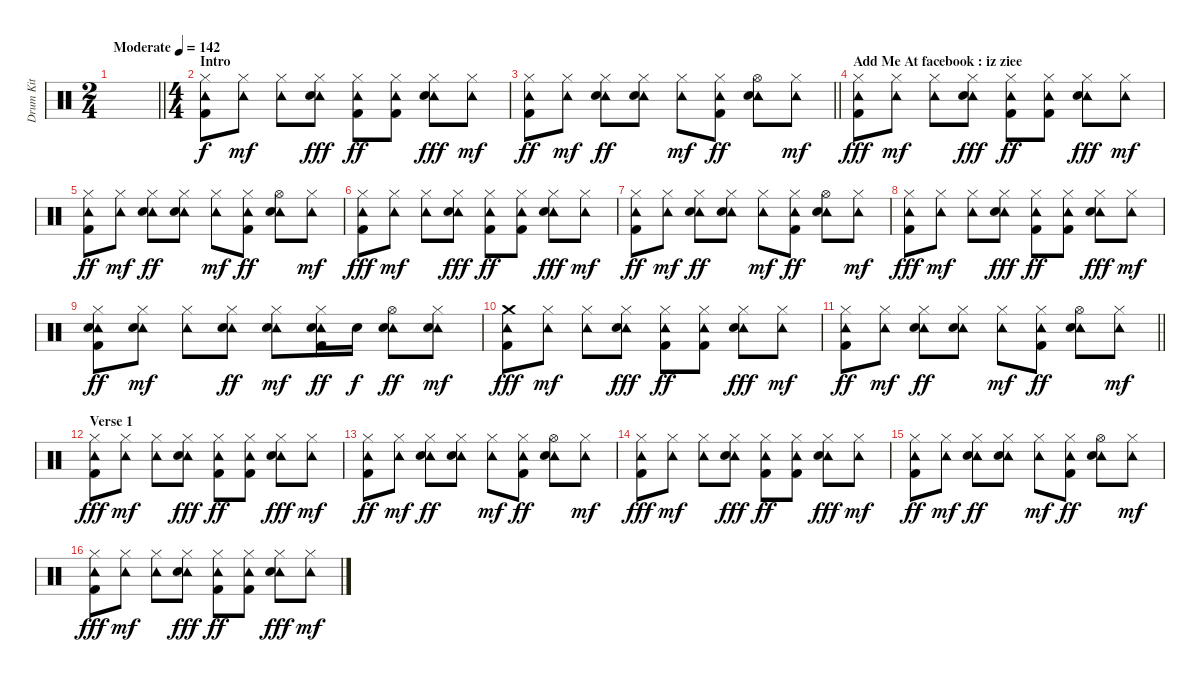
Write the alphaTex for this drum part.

\track ("Drum Kit" "Drum Kit") {instrument percussion}
\staff {score}
\articulation defaults
\ts (2 4)
\tempo (142 "Moderate")
\clef neutral
\barLineRight lightlight
\ks c
|
\ts (4 4)
\section ("" "Intro")
("Hi-Hat (closed)" "Tambourine (hit)" "Kick (hit) 2").8 ("Tambourine (hit)" "Hi-Hat (closed)").8{dy mf} ("Tambourine (hit)" "Hi-Hat (closed)").8 ("Tambourine (hit)" "Hi-Hat (closed)" "Electric Snare (hit)").8{dy fff} ("Tambourine (hit)" "Hi-Hat (closed)" "Kick (hit) 2").8{dy ff} ("Tambourine (hit)" "Hi-Hat (closed)" "Kick (hit) 2").8 ("Tambourine (hit)" "Hi-Hat (closed)" "Electric Snare (hit)").8{dy fff} ("Tambourine (hit)" "Hi-Hat (closed)").8{dy mf} |
\barLineRight lightlight
("Tambourine (hit)" "Hi-Hat (closed)" "Kick (hit) 2").8{dy ff} ("Tambourine (hit)" "Hi-Hat (closed)").8{dy mf} ("Tambourine (hit)" "Hi-Hat (closed)" "Electric Snare (hit)").8{dy ff} ("Tambourine (hit)" "Hi-Hat (closed)" "Electric Snare (hit)").8 ("Tambourine (hit)" "Hi-Hat (closed)").8{dy mf} ("Tambourine (hit)" "Hi-Hat (closed)" "Kick (hit) 2").8{dy ff} ("Tambourine (hit)" "Hi-Hat (open)" "Electric Snare (hit)").8 ("Tambourine (hit)" "Hi-Hat (closed)").8{dy mf} |
\section ("" "Add Me At facebook : iz ziee")
("Hi-Hat (closed)" "Tambourine (hit)" "Kick (hit) 2").8{dy fff} ("Tambourine (hit)" "Hi-Hat (closed)").8{dy mf} ("Tambourine (hit)" "Hi-Hat (closed)").8 ("Tambourine (hit)" "Hi-Hat (closed)" "Electric Snare (hit)").8{dy fff} ("Tambourine (hit)" "Hi-Hat (closed)" "Kick (hit) 2").8{dy ff} ("Tambourine (hit)" "Hi-Hat (closed)" "Kick (hit) 2").8 ("Tambourine (hit)" "Hi-Hat (closed)" "Electric Snare (hit)").8{dy fff} ("Tambourine (hit)" "Hi-Hat (closed)").8{dy mf} |
("Tambourine (hit)" "Hi-Hat (closed)" "Kick (hit) 2").8{dy ff} ("Tambourine (hit)" "Hi-Hat (closed)").8{dy mf} ("Tambourine (hit)" "Hi-Hat (closed)" "Electric Snare (hit)").8{dy ff} ("Tambourine (hit)" "Hi-Hat (closed)" "Electric Snare (hit)").8 ("Tambourine (hit)" "Hi-Hat (closed)").8{dy mf} ("Tambourine (hit)" "Hi-Hat (closed)" "Kick (hit) 2").8{dy ff} ("Tambourine (hit)" "Hi-Hat (open)" "Electric Snare (hit)").8 ("Tambourine (hit)" "Hi-Hat (closed)").8{dy mf} |
("Hi-Hat (closed)" "Tambourine (hit)" "Kick (hit) 2").8{dy fff} ("Tambourine (hit)" "Hi-Hat (closed)").8{dy mf} ("Tambourine (hit)" "Hi-Hat (closed)").8 ("Tambourine (hit)" "Hi-Hat (closed)" "Electric Snare (hit)").8{dy fff} ("Tambourine (hit)" "Hi-Hat (closed)" "Kick (hit) 2").8{dy ff} ("Tambourine (hit)" "Hi-Hat (closed)" "Kick (hit) 2").8 ("Tambourine (hit)" "Hi-Hat (closed)" "Electric Snare (hit)").8{dy fff} ("Tambourine (hit)" "Hi-Hat (closed)").8{dy mf} |
("Tambourine (hit)" "Hi-Hat (closed)" "Kick (hit) 2").8{dy ff} ("Tambourine (hit)" "Hi-Hat (closed)").8{dy mf} ("Tambourine (hit)" "Hi-Hat (closed)" "Electric Snare (hit)").8{dy ff} ("Tambourine (hit)" "Hi-Hat (closed)" "Electric Snare (hit)").8 ("Tambourine (hit)" "Hi-Hat (closed)").8{dy mf} ("Tambourine (hit)" "Hi-Hat (closed)" "Kick (hit) 2").8{dy ff} ("Tambourine (hit)" "Hi-Hat (open)" "Electric Snare (hit)").8 ("Tambourine (hit)" "Hi-Hat (closed)").8{dy mf} |
("Hi-Hat (closed)" "Tambourine (hit)" "Kick (hit) 2").8{dy fff} ("Tambourine (hit)" "Hi-Hat (closed)").8{dy mf} ("Tambourine (hit)" "Hi-Hat (closed)").8 ("Tambourine (hit)" "Hi-Hat (closed)" "Electric Snare (hit)").8{dy fff} ("Tambourine (hit)" "Hi-Hat (closed)" "Kick (hit) 2").8{dy ff} ("Tambourine (hit)" "Hi-Hat (closed)" "Kick (hit) 2").8 ("Tambourine (hit)" "Hi-Hat (closed)" "Electric Snare (hit)").8{dy fff} ("Tambourine (hit)" "Hi-Hat (closed)").8{dy mf} |
("Tambourine (hit)" "Hi-Hat (closed)" "Electric Snare (hit)" "Kick (hit) 2").8{dy ff} ("Tambourine (hit)" "Electric Snare (hit)" "Hi-Hat (closed)").8{dy mf} ("Tambourine (hit)" "Hi-Hat (closed)").8 ("Tambourine (hit)" "Hi-Hat (closed)" "Electric Snare (hit)").8{dy ff} ("Tambourine (hit)" "Electric Snare (hit)" "Hi-Hat (closed)").8{dy mf} ("Tambourine (hit)" "Electric Snare (hit)" "Hi-Hat (closed)" "Kick (hit) 2").16{dy ff} "Electric Snare (hit)".16{dy f} ("Tambourine (hit)" "Hi-Hat (open)" "Electric Snare (hit)").8{dy ff} ("Tambourine (hit)" "Electric Snare (hit)" "Hi-Hat (closed)").8{dy mf} |
("Crash medium (hit)" "Tambourine (hit)" "Kick (hit) 2").8{dy fff} ("Tambourine (hit)" "Hi-Hat (closed)").8{dy mf} ("Tambourine (hit)" "Hi-Hat (closed)").8 ("Tambourine (hit)" "Hi-Hat (closed)" "Electric Snare (hit)").8{dy fff} ("Tambourine (hit)" "Hi-Hat (closed)" "Kick (hit) 2").8{dy ff} ("Tambourine (hit)" "Hi-Hat (closed)" "Kick (hit) 2").8 ("Tambourine (hit)" "Hi-Hat (closed)" "Electric Snare (hit)").8{dy fff} ("Tambourine (hit)" "Hi-Hat (closed)").8{dy mf} |
\barLineRight lightlight
("Tambourine (hit)" "Hi-Hat (closed)" "Kick (hit) 2").8{dy ff} ("Tambourine (hit)" "Hi-Hat (closed)").8{dy mf} ("Tambourine (hit)" "Hi-Hat (closed)" "Electric Snare (hit)").8{dy ff} ("Tambourine (hit)" "Hi-Hat (closed)" "Electric Snare (hit)").8 ("Tambourine (hit)" "Hi-Hat (closed)").8{dy mf} ("Tambourine (hit)" "Hi-Hat (closed)" "Kick (hit) 2").8{dy ff} ("Tambourine (hit)" "Hi-Hat (open)" "Electric Snare (hit)").8 ("Tambourine (hit)" "Hi-Hat (closed)").8{dy mf} |
\section ("" "Verse 1")
("Hi-Hat (closed)" "Tambourine (hit)" "Kick (hit) 2").8{dy fff} ("Tambourine (hit)" "Hi-Hat (closed)").8{dy mf} ("Tambourine (hit)" "Hi-Hat (closed)").8 ("Tambourine (hit)" "Hi-Hat (closed)" "Electric Snare (hit)").8{dy fff} ("Tambourine (hit)" "Hi-Hat (closed)" "Kick (hit) 2").8{dy ff} ("Tambourine (hit)" "Hi-Hat (closed)" "Kick (hit) 2").8 ("Tambourine (hit)" "Hi-Hat (closed)" "Electric Snare (hit)").8{dy fff} ("Tambourine (hit)" "Hi-Hat (closed)").8{dy mf} |
("Tambourine (hit)" "Hi-Hat (closed)" "Kick (hit) 2").8{dy ff} ("Tambourine (hit)" "Hi-Hat (closed)").8{dy mf} ("Tambourine (hit)" "Hi-Hat (closed)" "Electric Snare (hit)").8{dy ff} ("Tambourine (hit)" "Hi-Hat (closed)" "Electric Snare (hit)").8 ("Tambourine (hit)" "Hi-Hat (closed)").8{dy mf} ("Tambourine (hit)" "Hi-Hat (closed)" "Kick (hit) 2").8{dy ff} ("Tambourine (hit)" "Hi-Hat (open)" "Electric Snare (hit)").8 ("Tambourine (hit)" "Hi-Hat (closed)").8{dy mf} |
("Hi-Hat (closed)" "Tambourine (hit)" "Kick (hit) 2").8{dy fff} ("Tambourine (hit)" "Hi-Hat (closed)").8{dy mf} ("Tambourine (hit)" "Hi-Hat (closed)").8 ("Tambourine (hit)" "Hi-Hat (closed)" "Electric Snare (hit)").8{dy fff} ("Tambourine (hit)" "Hi-Hat (closed)" "Kick (hit) 2").8{dy ff} ("Tambourine (hit)" "Hi-Hat (closed)" "Kick (hit) 2").8 ("Tambourine (hit)" "Hi-Hat (closed)" "Electric Snare (hit)").8{dy fff} ("Tambourine (hit)" "Hi-Hat (closed)").8{dy mf} |
("Tambourine (hit)" "Hi-Hat (closed)" "Kick (hit) 2").8{dy ff} ("Tambourine (hit)" "Hi-Hat (closed)").8{dy mf} ("Tambourine (hit)" "Hi-Hat (closed)" "Electric Snare (hit)").8{dy ff} ("Tambourine (hit)" "Hi-Hat (closed)" "Electric Snare (hit)").8 ("Tambourine (hit)" "Hi-Hat (closed)").8{dy mf} ("Tambourine (hit)" "Hi-Hat (closed)" "Kick (hit) 2").8{dy ff} ("Tambourine (hit)" "Hi-Hat (open)" "Electric Snare (hit)").8 ("Tambourine (hit)" "Hi-Hat (closed)").8{dy mf} |
("Hi-Hat (closed)" "Tambourine (hit)" "Kick (hit) 2").8{dy fff} ("Tambourine (hit)" "Hi-Hat (closed)").8{dy mf} ("Tambourine (hit)" "Hi-Hat (closed)").8 ("Tambourine (hit)" "Hi-Hat (closed)" "Electric Snare (hit)").8{dy fff} ("Tambourine (hit)" "Hi-Hat (closed)" "Kick (hit) 2").8{dy ff} ("Tambourine (hit)" "Hi-Hat (closed)" "Kick (hit) 2").8 ("Tambourine (hit)" "Hi-Hat (closed)" "Electric Snare (hit)").8{dy fff} ("Tambourine (hit)" "Hi-Hat (closed)").8{dy mf}
